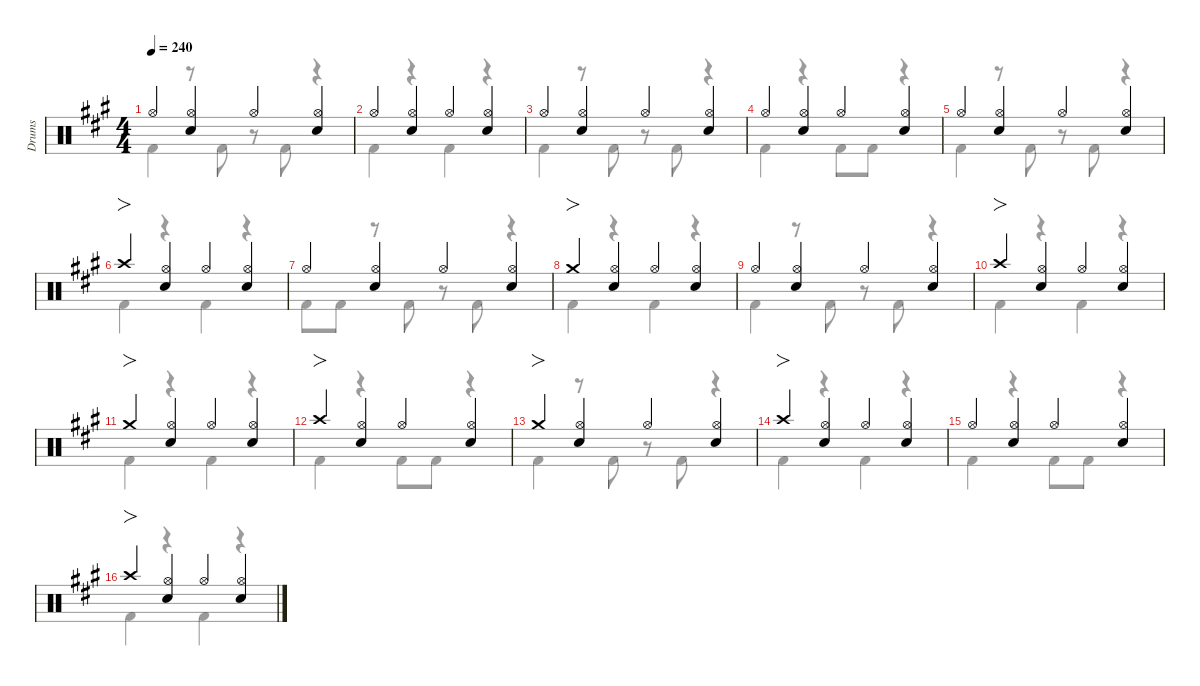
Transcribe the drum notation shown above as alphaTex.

\defaultSystemsLayout 4
\hideDynamics
\bracketExtendMode nobrackets
\otherSystemsTrackNameOrientation horizontal
\track ("Drums" "Drums") {defaultSystemsLayout 4 instrument percussion}
\staff {score}
\articulation defaults
\voice
\ts (4 4)
\tempo 240
\clef neutral
\scale
0.977842
\ks a "Hi-Hat (open)"{acc forcenatural}.4{dy f beam Up}
("Hi-Hat (open)"{acc forcenatural} "Snare (hit) 2"{acc forcenatural}).4{beam Up} "Hi-Hat (open)"{acc forcenatural}.4{beam Up} ("Hi-Hat (open)"{acc forcenatural} "Snare (hit) 2"{acc forcenatural}).4{beam Up} |
\scale
1.06647 "Hi-Hat (open)"{acc forcenatural}.4{beam Up} ("Hi-Hat (open)"{acc forcenatural} "Snare (hit) 2"{acc forcenatural}).4{beam Up} "Hi-Hat (open)"{acc forcenatural}.4{beam Up} ("Hi-Hat (open)"{acc forcenatural} "Snare (hit) 2"{acc forcenatural}).4{beam Up} |
\scale
0.977842 "Hi-Hat (open)"{acc forcenatural}.4{beam Up} ("Hi-Hat (open)"{acc forcenatural} "Snare (hit) 2"{acc forcenatural}).4{beam Up} "Hi-Hat (open)"{acc forcenatural}.4{beam Up} ("Hi-Hat (open)"{acc forcenatural} "Snare (hit) 2"{acc forcenatural}).4{beam Up} |
\scale
0.977842 "Hi-Hat (open)"{acc forcenatural}.4{beam Up} ("Hi-Hat (open)"{acc forcenatural} "Snare (hit) 2"{acc forcenatural}).4{beam Up} "Hi-Hat (open)"{acc forcenatural}.4{beam Up} ("Hi-Hat (open)"{acc forcenatural} "Snare (hit) 2"{acc forcenatural}).4{beam Up} |
\scale
0.977842 "Hi-Hat (open)"{acc forcenatural}.4{beam Up} ("Hi-Hat (open)"{acc forcenatural} "Snare (hit) 2"{acc forcenatural}).4{beam Up} "Hi-Hat (open)"{acc forcenatural}.4{beam Up} ("Hi-Hat (open)"{acc forcenatural} "Snare (hit) 2"{acc forcenatural}).4{beam Up} |
\scale
1.06647 "Crash high (hit)"{acc forcenatural}.4{fo beam Up} ("Hi-Hat (open)"{acc forcenatural} "Snare (hit) 2"{acc forcenatural}).4{beam Up} "Hi-Hat (open)"{acc forcenatural}.4{beam Up} ("Hi-Hat (open)"{acc forcenatural} "Snare (hit) 2"{acc forcenatural}).4{beam Up} |
\scale
0.977842 "Hi-Hat (open)"{acc forcenatural}.4{beam Up} ("Hi-Hat (open)"{acc forcenatural} "Snare (hit) 2"{acc forcenatural}).4{beam Up} "Hi-Hat (open)"{acc forcenatural}.4{beam Up} ("Hi-Hat (open)"{acc forcenatural} "Snare (hit) 2"{acc forcenatural}).4{beam Up} |
\scale
0.977842 "Crash medium (hit)"{acc forcenatural}.4{fo beam Up} ("Hi-Hat (open)"{acc forcenatural} "Snare (hit) 2"{acc forcenatural}).4{beam Up} "Hi-Hat (open)"{acc forcenatural}.4{beam Up} ("Hi-Hat (open)"{acc forcenatural} "Snare (hit) 2"{acc forcenatural}).4{beam Up} |
\scale
0.977842 "Hi-Hat (open)"{acc forcenatural}.4{beam Up} ("Hi-Hat (open)"{acc forcenatural} "Snare (hit) 2"{acc forcenatural}).4{beam Up} "Hi-Hat (open)"{acc forcenatural}.4{beam Up} ("Hi-Hat (open)"{acc forcenatural} "Snare (hit) 2"{acc forcenatural}).4{beam Up} |
\scale
1.06647 "Crash high (hit)"{acc forcenatural}.4{fo beam Up} ("Hi-Hat (open)"{acc forcenatural} "Snare (hit) 2"{acc forcenatural}).4{beam Up} "Hi-Hat (open)"{acc forcenatural}.4{beam Up} ("Hi-Hat (open)"{acc forcenatural} "Snare (hit) 2"{acc forcenatural}).4{beam Up} |
\scale
0.977842 "Crash medium (hit)"{acc forcenatural}.4{fo beam Up} ("Hi-Hat (open)"{acc forcenatural} "Snare (hit) 2"{acc forcenatural}).4{beam Up} "Hi-Hat (open)"{acc forcenatural}.4{beam Up} ("Hi-Hat (open)"{acc forcenatural} "Snare (hit) 2"{acc forcenatural}).4{beam Up} |
\scale
0.977842 "Crash high (hit)"{acc forcenatural}.4{fo beam Up} ("Hi-Hat (open)"{acc forcenatural} "Snare (hit) 2"{acc forcenatural}).4{beam Up} "Hi-Hat (open)"{acc forcenatural}.4{beam Up} ("Hi-Hat (open)"{acc forcenatural} "Snare (hit) 2"{acc forcenatural}).4{beam Up} |
\scale
0.977842 "Crash medium (hit)"{acc forcenatural}.4{fo beam Up} ("Hi-Hat (open)"{acc forcenatural} "Snare (hit) 2"{acc forcenatural}).4{beam Up} "Hi-Hat (open)"{acc forcenatural}.4{beam Up} ("Hi-Hat (open)"{acc forcenatural} "Snare (hit) 2"{acc forcenatural}).4{beam Up} |
\scale
1.06647 "Crash high (hit)"{acc forcenatural}.4{fo beam Up} ("Hi-Hat (open)"{acc forcenatural} "Snare (hit) 2"{acc forcenatural}).4{beam Up} "Hi-Hat (open)"{acc forcenatural}.4{beam Up} ("Hi-Hat (open)"{acc forcenatural} "Snare (hit) 2"{acc forcenatural}).4{beam Up} |
\scale
0.977842 "Hi-Hat (open)"{acc forcenatural}.4{beam Up} ("Hi-Hat (open)"{acc forcenatural} "Snare (hit) 2"{acc forcenatural}).4{beam Up} "Hi-Hat (open)"{acc forcenatural}.4{beam Up} ("Hi-Hat (open)"{acc forcenatural} "Snare (hit) 2"{acc forcenatural}).4{beam Up} |
\scale
0.977842 "Crash high (hit)"{acc forcenatural}.4{fo beam Up} ("Hi-Hat (open)"{acc forcenatural} "Snare (hit) 2"{acc forcenatural}).4{beam Up} "Hi-Hat (open)"{acc forcenatural}.4{beam Up} ("Hi-Hat (open)"{acc forcenatural} "Snare (hit) 2"{acc forcenatural}).4{beam Up}
\voice
\clef neutral
\ottava regular
\simile none
\scale
0.977842
\ks a "Kick (hit) 2"{acc forcenatural}.4{dy f beam Down}
r.8{beam Down} "Kick (hit) 2"{acc forcenatural}.8{beam Down} r.8{beam Down} "Kick (hit) 2"{acc forcenatural}.8{beam Down} r.4{beam Down} |
\scale
1.06647 "Kick (hit) 2"{acc forcenatural}.4{beam Down} r.4{beam Down} "Kick (hit) 2"{acc forcenatural}.4{beam Down} r.4{beam Down} |
\scale
0.977842 "Kick (hit) 2"{acc forcenatural}.4{beam Down} r.8{beam Down} "Kick (hit) 2"{acc forcenatural}.8{beam Down} r.8{beam Down} "Kick (hit) 2"{acc forcenatural}.8{beam Down} r.4{beam Down} |
\scale
0.977842 "Kick (hit) 2"{acc forcenatural}.4{beam Down} r.4{beam Down} "Kick (hit) 2"{acc forcenatural}.8{beam Down} "Kick (hit) 2"{acc forcenatural}.8{beam Down} r.4{beam Down} |
\scale
0.977842 "Kick (hit) 2"{acc forcenatural}.4{beam Down} r.8{beam Down} "Kick (hit) 2"{acc forcenatural}.8{beam Down} r.8{beam Down} "Kick (hit) 2"{acc forcenatural}.8{beam Down} r.4{beam Down} |
\scale
1.06647 "Kick (hit) 2"{acc forcenatural}.4{beam Down} r.4{beam Down} "Kick (hit) 2"{acc forcenatural}.4{beam Down} r.4{beam Down} |
\scale
0.977842 "Kick (hit) 2"{acc forcenatural}.8{beam Down} "Kick (hit) 2"{acc forcenatural}.8{beam Down} r.8{beam Down} "Kick (hit) 2"{acc forcenatural}.8{beam Down} r.8{beam Down} "Kick (hit) 2"{acc forcenatural}.8{beam Down} r.4{beam Down} |
\scale
0.977842 "Kick (hit) 2"{acc forcenatural}.4{beam Down} r.4{beam Down} "Kick (hit) 2"{acc forcenatural}.4{beam Down} r.4{beam Down} |
\scale
0.977842 "Kick (hit) 2"{acc forcenatural}.4{beam Down} r.8{beam Down} "Kick (hit) 2"{acc forcenatural}.8{beam Down} r.8{beam Down} "Kick (hit) 2"{acc forcenatural}.8{beam Down} r.4{beam Down} |
\scale
1.06647 "Kick (hit) 2"{acc forcenatural}.4{beam Down} r.4{beam Down} "Kick (hit) 2"{acc forcenatural}.4{beam Down} r.4{beam Down} |
\scale
0.977842 "Kick (hit) 2"{acc forcenatural}.4{beam Down} r.4{beam Down} "Kick (hit) 2"{acc forcenatural}.4{beam Down} r.4{beam Down} |
\scale
0.977842 "Kick (hit) 2"{acc forcenatural}.4{beam Down} r.4{beam Down} "Kick (hit) 2"{acc forcenatural}.8{beam Down} "Kick (hit) 2"{acc forcenatural}.8{beam Down} r.4{beam Down} |
\scale
0.977842 "Kick (hit) 2"{acc forcenatural}.4{beam Down} r.8{beam Down} "Kick (hit) 2"{acc forcenatural}.8{beam Down} r.8{beam Down} "Kick (hit) 2"{acc forcenatural}.8{beam Down} r.4{beam Down} |
\scale
1.06647 "Kick (hit) 2"{acc forcenatural}.4{beam Down} r.4{beam Down} "Kick (hit) 2"{acc forcenatural}.4{beam Down} r.4{beam Down} |
\scale
0.977842 "Kick (hit) 2"{acc forcenatural}.4{beam Down} r.4{beam Down} "Kick (hit) 2"{acc forcenatural}.8{beam Down} "Kick (hit) 2"{acc forcenatural}.8{beam Down} r.4{beam Down} |
\scale
0.977842 "Kick (hit) 2"{acc forcenatural}.4{beam Down} r.4{beam Down} "Kick (hit) 2"{acc forcenatural}.4{beam Down} r.4{beam Down}
